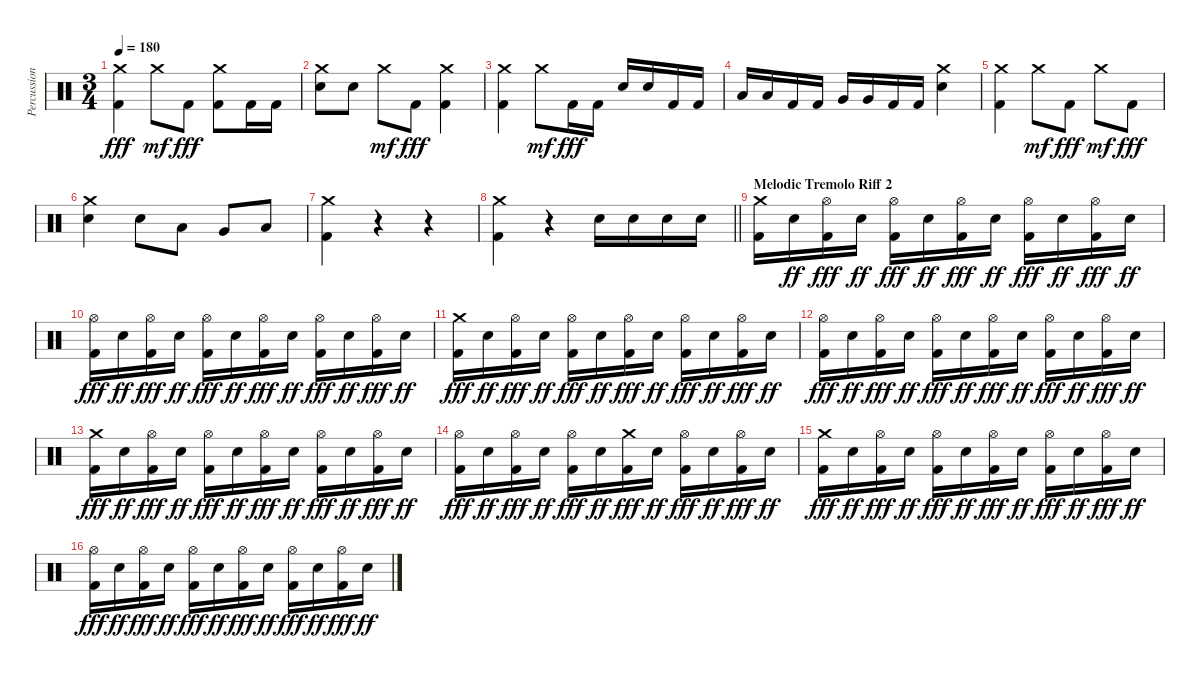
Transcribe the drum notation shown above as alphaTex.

\track ("Percussion" "Percussion") {instrument percussion}
\staff {score}
\articulation defaults
\ts (3 4)
\tempo 180
\clef neutral
\ks c
("Crash medium (hit)" "Kick (hit) 2").4{dy fff} "Crash medium (hit)".8{dy mf} "Kick (hit) 2".8{dy fff} ("Crash medium (hit)" "Kick (hit) 2").8 "Kick (hit) 2".16 "Kick (hit) 2".16 |
("Crash medium (hit)" "Electric Snare (hit)").8 "Electric Snare (hit)".8 "Crash medium (hit)".8{dy mf} "Kick (hit) 2".8{dy fff} ("Crash medium (hit)" "Kick (hit) 2").4 |
("Crash medium (hit)" "Kick (hit) 2").4 "Crash medium (hit)".8{dy mf} "Kick (hit) 2".16{dy fff} "Kick (hit) 2".16 "Electric Snare (hit)".16 "Electric Snare (hit)".16 "Kick (hit) 2".16 "Kick (hit) 2".16 |
"Low Tom (hit)".16 "Low Tom (hit)".16 "Kick (hit) 2".16 "Kick (hit) 2".16 "Very Low Tom (hit)".16 "Very Low Tom (hit)".16 "Kick (hit) 2".16 "Kick (hit) 2".16 ("Crash medium (hit)" "Electric Snare (hit)").4 |
("Crash medium (hit)" "Kick (hit) 2").4 "Crash medium (hit)".8{dy mf} "Kick (hit) 2".8{dy fff} "Crash medium (hit)".8{dy mf} "Kick (hit) 2".8{dy fff} |
("Crash medium (hit)" "Electric Snare (hit)").4 "Electric Snare (hit)".8 "Low Tom (hit)".8 "Very Low Tom (hit)".8 "Low Floor Tom (hit)".8 |
("Crash medium (hit)" "Kick (hit) 2").4 r.4 r.4 |
\barLineRight lightlight
("Crash medium (hit)" "Kick (hit) 2").4 r.4 "Electric Snare (hit)".16 "Electric Snare (hit)".16 "Electric Snare (hit)".16 "Electric Snare (hit)".16 |
\section ("" "Melodic Tremolo Riff 2")
("Crash medium (hit)" "Kick (hit) 2").16 "Electric Snare (hit)".16{dy ff} ("Hi-Hat (open)" "Kick (hit) 2").16{dy fff} "Electric Snare (hit)".16{dy ff} ("Hi-Hat (open)" "Kick (hit) 2").16{dy fff} "Electric Snare (hit)".16{dy ff} ("Hi-Hat (open)" "Kick (hit) 2").16{dy fff} "Electric Snare (hit)".16{dy ff} ("Hi-Hat (open)" "Kick (hit) 2").16{dy fff} "Electric Snare (hit)".16{dy ff} ("Hi-Hat (open)" "Kick (hit) 2").16{dy fff} "Electric Snare (hit)".16{dy ff} |
("Hi-Hat (open)" "Kick (hit) 2").16{dy fff} "Electric Snare (hit)".16{dy ff} ("Hi-Hat (open)" "Kick (hit) 2").16{dy fff} "Electric Snare (hit)".16{dy ff} ("Hi-Hat (open)" "Kick (hit) 2").16{dy fff} "Electric Snare (hit)".16{dy ff} ("Hi-Hat (open)" "Kick (hit) 2").16{dy fff} "Electric Snare (hit)".16{dy ff} ("Hi-Hat (open)" "Kick (hit) 2").16{dy fff} "Electric Snare (hit)".16{dy ff} ("Hi-Hat (open)" "Kick (hit) 2").16{dy fff} "Electric Snare (hit)".16{dy ff} |
("Crash medium (hit)" "Kick (hit) 2").16{dy fff} "Electric Snare (hit)".16{dy ff} ("Hi-Hat (open)" "Kick (hit) 2").16{dy fff} "Electric Snare (hit)".16{dy ff} ("Hi-Hat (open)" "Kick (hit) 2").16{dy fff} "Electric Snare (hit)".16{dy ff} ("Hi-Hat (open)" "Kick (hit) 2").16{dy fff} "Electric Snare (hit)".16{dy ff} ("Hi-Hat (open)" "Kick (hit) 2").16{dy fff} "Electric Snare (hit)".16{dy ff} ("Hi-Hat (open)" "Kick (hit) 2").16{dy fff} "Electric Snare (hit)".16{dy ff} |
("Hi-Hat (open)" "Kick (hit) 2").16{dy fff} "Electric Snare (hit)".16{dy ff} ("Hi-Hat (open)" "Kick (hit) 2").16{dy fff} "Electric Snare (hit)".16{dy ff} ("Hi-Hat (open)" "Kick (hit) 2").16{dy fff} "Electric Snare (hit)".16{dy ff} ("Hi-Hat (open)" "Kick (hit) 2").16{dy fff} "Electric Snare (hit)".16{dy ff} ("Hi-Hat (open)" "Kick (hit) 2").16{dy fff} "Electric Snare (hit)".16{dy ff} ("Hi-Hat (open)" "Kick (hit) 2").16{dy fff} "Electric Snare (hit)".16{dy ff} |
("Crash medium (hit)" "Kick (hit) 2").16{dy fff} "Electric Snare (hit)".16{dy ff} ("Hi-Hat (open)" "Kick (hit) 2").16{dy fff} "Electric Snare (hit)".16{dy ff} ("Hi-Hat (open)" "Kick (hit) 2").16{dy fff} "Electric Snare (hit)".16{dy ff} ("Hi-Hat (open)" "Kick (hit) 2").16{dy fff} "Electric Snare (hit)".16{dy ff} ("Hi-Hat (open)" "Kick (hit) 2").16{dy fff} "Electric Snare (hit)".16{dy ff} ("Hi-Hat (open)" "Kick (hit) 2").16{dy fff} "Electric Snare (hit)".16{dy ff} |
("Hi-Hat (open)" "Kick (hit) 2").16{dy fff} "Electric Snare (hit)".16{dy ff} ("Hi-Hat (open)" "Kick (hit) 2").16{dy fff} "Electric Snare (hit)".16{dy ff} ("Hi-Hat (open)" "Kick (hit) 2").16{dy fff} "Electric Snare (hit)".16{dy ff} ("Crash medium (hit)" "Kick (hit) 2").16{dy fff} "Electric Snare (hit)".16{dy ff} ("Hi-Hat (open)" "Kick (hit) 2").16{dy fff} "Electric Snare (hit)".16{dy ff} ("Hi-Hat (open)" "Kick (hit) 2").16{dy fff} "Electric Snare (hit)".16{dy ff} |
("Crash medium (hit)" "Kick (hit) 2").16{dy fff} "Electric Snare (hit)".16{dy ff} ("Hi-Hat (open)" "Kick (hit) 2").16{dy fff} "Electric Snare (hit)".16{dy ff} ("Hi-Hat (open)" "Kick (hit) 2").16{dy fff} "Electric Snare (hit)".16{dy ff} ("Hi-Hat (open)" "Kick (hit) 2").16{dy fff} "Electric Snare (hit)".16{dy ff} ("Hi-Hat (open)" "Kick (hit) 2").16{dy fff} "Electric Snare (hit)".16{dy ff} ("Hi-Hat (open)" "Kick (hit) 2").16{dy fff} "Electric Snare (hit)".16{dy ff} |
("Hi-Hat (open)" "Kick (hit) 2").16{dy fff} "Electric Snare (hit)".16{dy ff} ("Hi-Hat (open)" "Kick (hit) 2").16{dy fff} "Electric Snare (hit)".16{dy ff} ("Hi-Hat (open)" "Kick (hit) 2").16{dy fff} "Electric Snare (hit)".16{dy ff} ("Hi-Hat (open)" "Kick (hit) 2").16{dy fff} "Electric Snare (hit)".16{dy ff} ("Hi-Hat (open)" "Kick (hit) 2").16{dy fff} "Electric Snare (hit)".16{dy ff} ("Hi-Hat (open)" "Kick (hit) 2").16{dy fff} "Electric Snare (hit)".16{dy ff}
